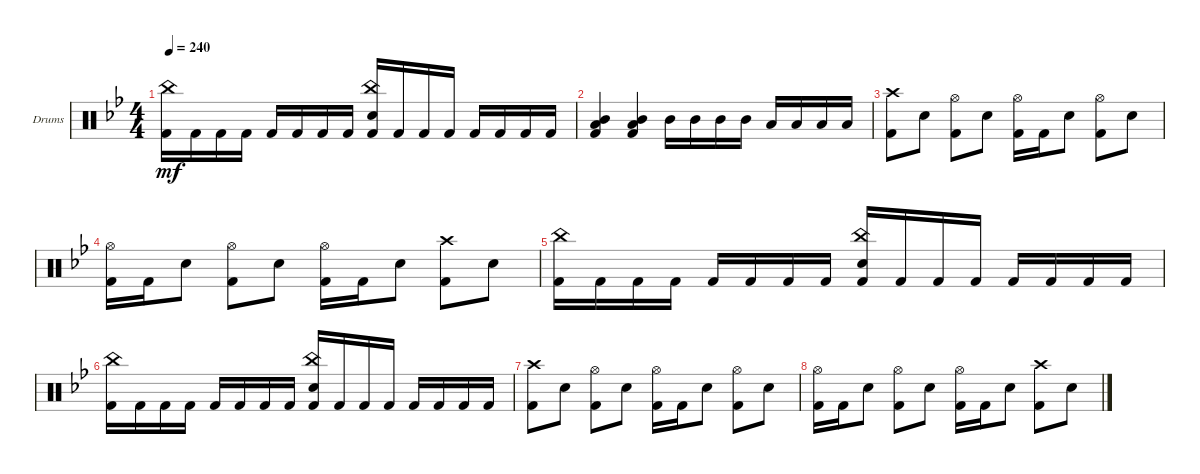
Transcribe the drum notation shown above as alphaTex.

\defaultSystemsLayout 4
\bracketExtendMode groupsimilarinstruments
\firstSystemTrackNameOrientation horizontal
\otherSystemsTrackNameOrientation horizontal
\track ("Drumkit" "Drums") {instrument percussion}
\staff {score}
\articulation defaults
\ts (4 4)
\tempo 240
\clef neutral
\scale
0.333333
\ks bb
("Kick (hit) 2"{acc forcenatural} "China (hit)"{acc forcenatural}).16{dy mf} "Kick (hit) 2"{acc forcenatural}.16 "Kick (hit) 2"{acc forcenatural}.16 "Kick (hit) 2"{acc forcenatural}.16 "Kick (hit) 2"{acc forcenatural}.16 "Kick (hit) 2"{acc forcenatural}.16 "Kick (hit) 2"{acc forcenatural}.16 "Kick (hit) 2"{acc forcenatural}.16 ("Kick (hit) 2"{acc forcenatural} "Snare (hit) 2"{acc forcenatural} "China (hit)"{acc forcenatural}).16 "Kick (hit) 2"{acc forcenatural}.16 "Kick (hit) 2"{acc forcenatural}.16 "Kick (hit) 2"{acc forcenatural}.16 "Kick (hit) 2"{acc forcenatural}.16 "Kick (hit) 2"{acc forcenatural}.16 "Kick (hit) 2"{acc forcenatural}.16 "Kick (hit) 2"{acc forcenatural}.16 |
\scale
0.333333 ("Mid Tom (hit)"{acc forcenatural} "Low Tom (hit)"{acc forcenatural} "Kick (hit) 2"{acc forcenatural}).4 ("Mid Tom (hit)"{acc forcenatural} "Low Tom (hit)"{acc forcenatural} "Kick (hit) 2"{acc forcenatural}).4 "Mid Tom (hit)"{acc forcenatural}.16 "Mid Tom (hit)"{acc forcenatural}.16 "Mid Tom (hit)"{acc forcenatural}.16 "Mid Tom (hit)"{acc forcenatural}.16 "Low Tom (hit)"{acc forcenatural}.16 "Low Tom (hit)"{acc forcenatural}.16 "Low Tom (hit)"{acc forcenatural}.16 "Low Tom (hit)"{acc forcenatural}.16 |
\scale
0.333333 ("Crash high (hit)"{acc forcenatural} "Kick (hit) 2"{acc forcenatural}).8 "Snare (hit) 2"{acc forcenatural}.8 ("Kick (hit) 2"{acc forcenatural} "Hi-Hat (open)"{acc forcenatural}).8 "Snare (hit) 2"{acc forcenatural}.8 ("Kick (hit) 2"{acc forcenatural} "Hi-Hat (open)"{acc forcenatural}).16 "Kick (hit) 2"{acc forcenatural}.16 "Snare (hit) 2"{acc forcenatural}.8 ("Kick (hit) 2"{acc forcenatural} "Hi-Hat (open)"{acc forcenatural}).8 "Snare (hit) 2"{acc forcenatural}.8 |
\scale
0.333333 ("Kick (hit) 2"{acc forcenatural} "Hi-Hat (open)"{acc forcenatural}).16 "Kick (hit) 2"{acc forcenatural}.16 "Snare (hit) 2"{acc forcenatural}.8 ("Kick (hit) 2"{acc forcenatural} "Hi-Hat (open)"{acc forcenatural}).8 "Snare (hit) 2"{acc forcenatural}.8 ("Kick (hit) 2"{acc forcenatural} "Hi-Hat (open)"{acc forcenatural}).16 "Kick (hit) 2"{acc forcenatural}.16 "Snare (hit) 2"{acc forcenatural}.8 ("Kick (hit) 2"{acc forcenatural} "Crash high (hit)"{acc forcenatural}).8 "Snare (hit) 2"{acc forcenatural}.8 |
\scale
0.333333 ("Kick (hit) 2"{acc forcenatural} "China (hit)"{acc forcenatural}).16 "Kick (hit) 2"{acc forcenatural}.16 "Kick (hit) 2"{acc forcenatural}.16 "Kick (hit) 2"{acc forcenatural}.16 "Kick (hit) 2"{acc forcenatural}.16 "Kick (hit) 2"{acc forcenatural}.16 "Kick (hit) 2"{acc forcenatural}.16 "Kick (hit) 2"{acc forcenatural}.16 ("Kick (hit) 2"{acc forcenatural} "Snare (hit) 2"{acc forcenatural} "China (hit)"{acc forcenatural}).16 "Kick (hit) 2"{acc forcenatural}.16 "Kick (hit) 2"{acc forcenatural}.16 "Kick (hit) 2"{acc forcenatural}.16 "Kick (hit) 2"{acc forcenatural}.16 "Kick (hit) 2"{acc forcenatural}.16 "Kick (hit) 2"{acc forcenatural}.16 "Kick (hit) 2"{acc forcenatural}.16 |
\scale
0.333333 ("Kick (hit) 2"{acc forcenatural} "China (hit)"{acc forcenatural}).16 "Kick (hit) 2"{acc forcenatural}.16 "Kick (hit) 2"{acc forcenatural}.16 "Kick (hit) 2"{acc forcenatural}.16 "Kick (hit) 2"{acc forcenatural}.16 "Kick (hit) 2"{acc forcenatural}.16 "Kick (hit) 2"{acc forcenatural}.16 "Kick (hit) 2"{acc forcenatural}.16 ("Kick (hit) 2"{acc forcenatural} "Snare (hit) 2"{acc forcenatural} "China (hit)"{acc forcenatural}).16 "Kick (hit) 2"{acc forcenatural}.16 "Kick (hit) 2"{acc forcenatural}.16 "Kick (hit) 2"{acc forcenatural}.16 "Kick (hit) 2"{acc forcenatural}.16 "Kick (hit) 2"{acc forcenatural}.16 "Kick (hit) 2"{acc forcenatural}.16 "Kick (hit) 2"{acc forcenatural}.16 |
\scale
0.333333 ("Crash high (hit)"{acc forcenatural} "Kick (hit) 2"{acc forcenatural}).8 "Snare (hit) 2"{acc forcenatural}.8 ("Kick (hit) 2"{acc forcenatural} "Hi-Hat (open)"{acc forcenatural}).8 "Snare (hit) 2"{acc forcenatural}.8 ("Kick (hit) 2"{acc forcenatural} "Hi-Hat (open)"{acc forcenatural}).16 "Kick (hit) 2"{acc forcenatural}.16 "Snare (hit) 2"{acc forcenatural}.8 ("Kick (hit) 2"{acc forcenatural} "Hi-Hat (open)"{acc forcenatural}).8 "Snare (hit) 2"{acc forcenatural}.8 |
\scale
0.333333 ("Kick (hit) 2"{acc forcenatural} "Hi-Hat (open)"{acc forcenatural}).16 "Kick (hit) 2"{acc forcenatural}.16 "Snare (hit) 2"{acc forcenatural}.8 ("Kick (hit) 2"{acc forcenatural} "Hi-Hat (open)"{acc forcenatural}).8 "Snare (hit) 2"{acc forcenatural}.8 ("Kick (hit) 2"{acc forcenatural} "Hi-Hat (open)"{acc forcenatural}).16 "Kick (hit) 2"{acc forcenatural}.16 "Snare (hit) 2"{acc forcenatural}.8 ("Kick (hit) 2"{acc forcenatural} "Crash high (hit)"{acc forcenatural}).8 "Snare (hit) 2"{acc forcenatural}.8 |
\scale
0.333333 |
\scale
0.333333 |
\scale
0.333333 |
\scale
0.333333 |
\scale
0.333333 |
\scale
0.333333 |
\scale
0.333333 |
\scale
0.333333
